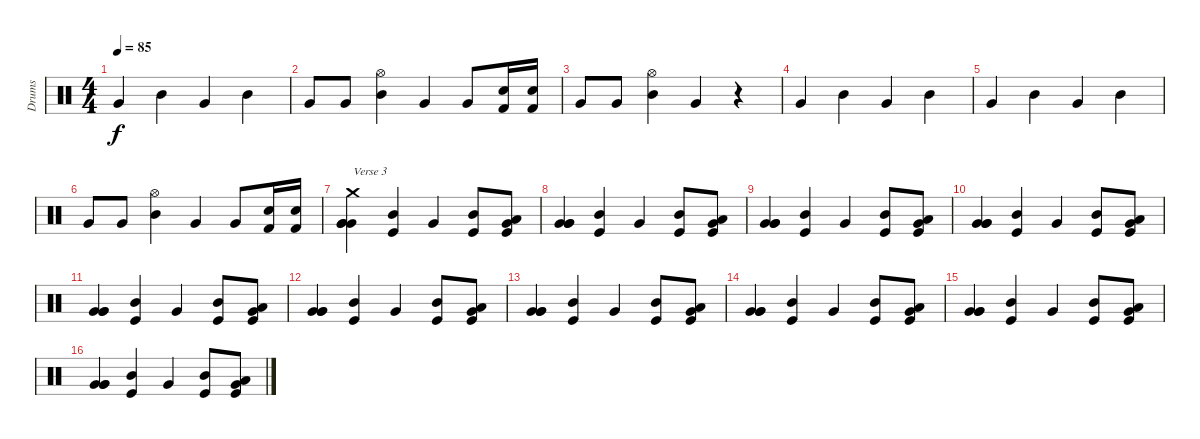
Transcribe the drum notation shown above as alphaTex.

\track ("Drums" "Drums") {instrument percussion}
\staff {score}
\articulation defaults
\ts (4 4)
\tempo 85
\clef neutral
\ks c "Very Low Tom (hit)".4{dy f} "Mid Tom (hit)".4 "Very Low Tom (hit)".4 "Mid Tom (hit)".4
|
"Very Low Tom (hit)".8 "Very Low Tom (hit)".8 ("Mid Tom (hit)" "Hi-Hat (open)").4 "Very Low Tom (hit)".4 "Very Low Tom (hit)".8 ("Kick (hit) 2" "Snare (hit) 2").16 ("Kick (hit) 2" "Snare (hit) 2").16 |
"Very Low Tom (hit)".8 "Very Low Tom (hit)".8 ("Mid Tom (hit)" "Hi-Hat (open)").4 "Very Low Tom (hit)".4 r.4 |
"Very Low Tom (hit)".4 "Mid Tom (hit)".4 "Very Low Tom (hit)".4 "Mid Tom (hit)".4 |
"Very Low Tom (hit)".4 "Mid Tom (hit)".4 "Very Low Tom (hit)".4 "Mid Tom (hit)".4 |
"Very Low Tom (hit)".8 "Very Low Tom (hit)".8 ("Mid Tom (hit)" "Hi-Hat (open)").4 "Very Low Tom (hit)".4 "Very Low Tom (hit)".8 ("Kick (hit) 2" "Snare (hit) 2").16 ("Kick (hit) 2" "Snare (hit) 2").16 |
("Very Low Tom (hit)" "Very Low Tom (hit)" "Very Low Tom (hit)" "Crash medium (hit)").4{txt "Verse 3"} ("Mid Tom (hit)" "Kick (hit)").4 "Very Low Tom (hit)".4 ("Mid Tom (hit)" "Kick (hit)").8 ("Very Low Tom (hit)" "Kick (hit)" "Low Tom (hit)").8 |
("Very Low Tom (hit)" "Very Low Tom (hit)" "Very Low Tom (hit)").4 ("Mid Tom (hit)" "Kick (hit)").4 "Very Low Tom (hit)".4 ("Mid Tom (hit)" "Kick (hit)").8 ("Very Low Tom (hit)" "Kick (hit)" "Low Tom (hit)").8 |
("Very Low Tom (hit)" "Very Low Tom (hit)" "Very Low Tom (hit)").4 ("Mid Tom (hit)" "Kick (hit)").4 "Very Low Tom (hit)".4 ("Mid Tom (hit)" "Kick (hit)").8 ("Very Low Tom (hit)" "Kick (hit)" "Low Tom (hit)").8 |
("Very Low Tom (hit)" "Very Low Tom (hit)" "Very Low Tom (hit)").4 ("Mid Tom (hit)" "Kick (hit)").4 "Very Low Tom (hit)".4 ("Mid Tom (hit)" "Kick (hit)").8 ("Very Low Tom (hit)" "Kick (hit)" "Low Tom (hit)").8 |
("Very Low Tom (hit)" "Very Low Tom (hit)" "Very Low Tom (hit)").4 ("Mid Tom (hit)" "Kick (hit)").4 "Very Low Tom (hit)".4 ("Mid Tom (hit)" "Kick (hit)").8 ("Very Low Tom (hit)" "Kick (hit)" "Low Tom (hit)").8 |
("Very Low Tom (hit)" "Very Low Tom (hit)" "Very Low Tom (hit)").4 ("Mid Tom (hit)" "Kick (hit)").4 "Very Low Tom (hit)".4 ("Mid Tom (hit)" "Kick (hit)").8 ("Very Low Tom (hit)" "Kick (hit)" "Low Tom (hit)").8 |
("Very Low Tom (hit)" "Very Low Tom (hit)" "Very Low Tom (hit)").4 ("Mid Tom (hit)" "Kick (hit)").4 "Very Low Tom (hit)".4 ("Mid Tom (hit)" "Kick (hit)").8 ("Very Low Tom (hit)" "Kick (hit)" "Low Tom (hit)").8 |
("Very Low Tom (hit)" "Very Low Tom (hit)" "Very Low Tom (hit)").4 ("Mid Tom (hit)" "Kick (hit)").4 "Very Low Tom (hit)".4 ("Mid Tom (hit)" "Kick (hit)").8 ("Very Low Tom (hit)" "Kick (hit)" "Low Tom (hit)").8 |
("Very Low Tom (hit)" "Very Low Tom (hit)" "Very Low Tom (hit)").4 ("Mid Tom (hit)" "Kick (hit)").4 "Very Low Tom (hit)".4 ("Mid Tom (hit)" "Kick (hit)").8 ("Very Low Tom (hit)" "Kick (hit)" "Low Tom (hit)").8 |
("Very Low Tom (hit)" "Very Low Tom (hit)" "Very Low Tom (hit)").4 ("Mid Tom (hit)" "Kick (hit)").4 "Very Low Tom (hit)".4 ("Mid Tom (hit)" "Kick (hit)").8 ("Very Low Tom (hit)" "Kick (hit)" "Low Tom (hit)").8
